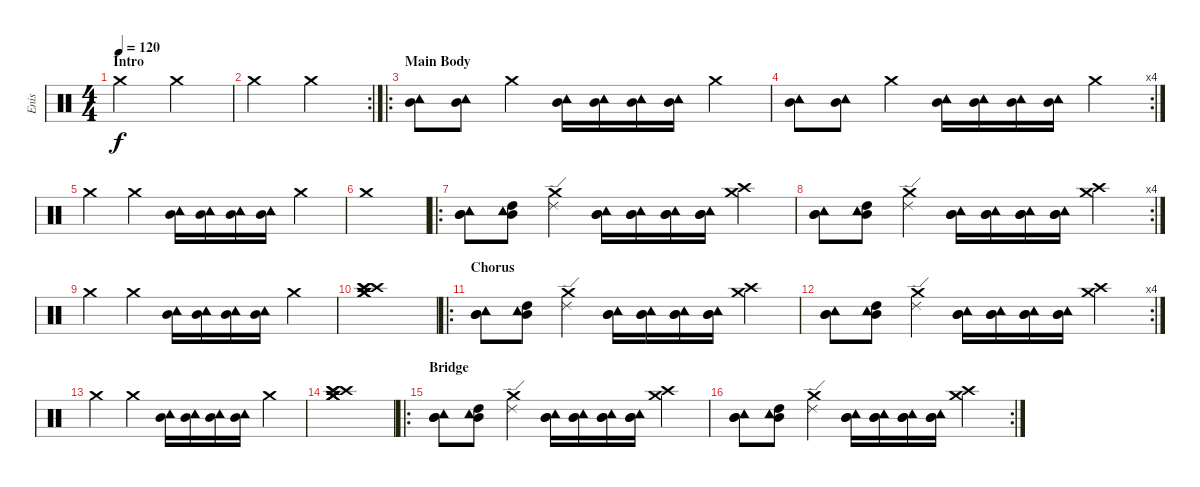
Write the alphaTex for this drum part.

\track ("Enis" "Enis") {instrument percussion}
\staff {score}
\articulation defaults
\ts (4 4)
\section ("" "İntro")
\tempo 120
\clef neutral
\ks c "Crash medium (hit)".2{dy f} "Crash medium (hit)".2
|
\rc 2 "Crash medium (hit)".2 "Crash medium (hit)".2
|
\ro
\section ("" "Main Body")
("Mid Tom (hit)" "Tambourine (hit)").8 ("Mid Tom (hit)" "Tambourine (hit)").8 "Crash medium (hit)".4 ("Mid Tom (hit)" "Tambourine (hit)").16 ("Mid Tom (hit)" "Tambourine (hit)").16 ("Mid Tom (hit)" "Tambourine (hit)").16 ("Mid Tom (hit)" "Tambourine (hit)").16 "Crash medium (hit)".4 |
\rc 4
("Mid Tom (hit)" "Tambourine (hit)").8 ("Mid Tom (hit)" "Tambourine (hit)").8 "Crash medium (hit)".4 ("Mid Tom (hit)" "Tambourine (hit)").16 ("Mid Tom (hit)" "Tambourine (hit)").16 ("Mid Tom (hit)" "Tambourine (hit)").16 ("Mid Tom (hit)" "Tambourine (hit)").16 "Crash medium (hit)".4 |
"Crash medium (hit)".4 "Crash medium (hit)".4 ("Mid Tom (hit)" "Tambourine (hit)").16 ("Mid Tom (hit)" "Tambourine (hit)").16 ("Mid Tom (hit)" "Tambourine (hit)").16 ("Mid Tom (hit)" "Tambourine (hit)").16 "Crash medium (hit)".4 |
"Crash medium (hit)".1 |
\ro
("Mid Tom (hit)" "Mid Tom (hit)" "Tambourine (hit)").8 ("High Tom (hit)" "Mid Tom (hit)" "Tambourine (hit)").8 ("Ride (edge) 2" "Crash medium (hit)").4 ("Mid Tom (hit)" "Mid Tom (hit)" "Tambourine (hit)").16 ("Mid Tom (hit)" "Mid Tom (hit)" "Tambourine (hit)").16 ("Mid Tom (hit)" "Mid Tom (hit)" "Tambourine (hit)").16 ("Mid Tom (hit)" "Mid Tom (hit)" "Tambourine (hit)").16 ("Crash high (hit)" "Crash medium (hit)").4 |
\rc 4
("Mid Tom (hit)" "Mid Tom (hit)" "Tambourine (hit)").8 ("High Tom (hit)" "Mid Tom (hit)" "Tambourine (hit)").8 ("Ride (edge) 2" "Crash medium (hit)").4 ("Mid Tom (hit)" "Mid Tom (hit)" "Tambourine (hit)").16 ("Mid Tom (hit)" "Mid Tom (hit)" "Tambourine (hit)").16 ("Mid Tom (hit)" "Mid Tom (hit)" "Tambourine (hit)").16 ("Mid Tom (hit)" "Mid Tom (hit)" "Tambourine (hit)").16 ("Crash high (hit)" "Crash medium (hit)").4 |
"Crash medium (hit)".4 "Crash medium (hit)".4 ("Mid Tom (hit)" "Tambourine (hit)").16 ("Mid Tom (hit)" "Tambourine (hit)").16 ("Mid Tom (hit)" "Tambourine (hit)").16 ("Mid Tom (hit)" "Tambourine (hit)").16 "Crash medium (hit)".4 |
("Crash medium (hit)" "Crash medium (hit)" "Crash medium (hit)" "Crash high (hit)" "Crash high (hit)" "Crash high (hit)").1 |
\ro
\section ("" "Chorus")
("Mid Tom (hit)" "Mid Tom (hit)" "Tambourine (hit)").8 ("High Tom (hit)" "Mid Tom (hit)" "Tambourine (hit)").8 ("Ride (edge) 2" "Crash medium (hit)").4 ("Mid Tom (hit)" "Mid Tom (hit)" "Tambourine (hit)").16 ("Mid Tom (hit)" "Mid Tom (hit)" "Tambourine (hit)").16 ("Mid Tom (hit)" "Mid Tom (hit)" "Tambourine (hit)").16 ("Mid Tom (hit)" "Mid Tom (hit)" "Tambourine (hit)").16 ("Crash high (hit)" "Crash medium (hit)").4 |
\rc 4
("Mid Tom (hit)" "Mid Tom (hit)" "Tambourine (hit)").8 ("High Tom (hit)" "Mid Tom (hit)" "Tambourine (hit)").8 ("Ride (edge) 2" "Crash medium (hit)").4 ("Mid Tom (hit)" "Mid Tom (hit)" "Tambourine (hit)").16 ("Mid Tom (hit)" "Mid Tom (hit)" "Tambourine (hit)").16 ("Mid Tom (hit)" "Mid Tom (hit)" "Tambourine (hit)").16 ("Mid Tom (hit)" "Mid Tom (hit)" "Tambourine (hit)").16 ("Crash high (hit)" "Crash medium (hit)").4 |
"Crash medium (hit)".4 "Crash medium (hit)".4 ("Mid Tom (hit)" "Tambourine (hit)").16 ("Mid Tom (hit)" "Tambourine (hit)").16 ("Mid Tom (hit)" "Tambourine (hit)").16 ("Mid Tom (hit)" "Tambourine (hit)").16 "Crash medium (hit)".4 |
("Crash medium (hit)" "Crash medium (hit)" "Crash medium (hit)" "Crash high (hit)" "Crash high (hit)" "Crash high (hit)").1 |
\ro
\section ("" "Bridge")
("Mid Tom (hit)" "Mid Tom (hit)" "Tambourine (hit)").8 ("High Tom (hit)" "Mid Tom (hit)" "Tambourine (hit)").8 ("Ride (edge) 2" "Crash medium (hit)").4 ("Mid Tom (hit)" "Mid Tom (hit)" "Tambourine (hit)").16 ("Mid Tom (hit)" "Mid Tom (hit)" "Tambourine (hit)").16 ("Mid Tom (hit)" "Mid Tom (hit)" "Tambourine (hit)").16 ("Mid Tom (hit)" "Mid Tom (hit)" "Tambourine (hit)").16 ("Crash high (hit)" "Crash medium (hit)").4 |
\rc 2
("Mid Tom (hit)" "Mid Tom (hit)" "Tambourine (hit)").8 ("High Tom (hit)" "Mid Tom (hit)" "Tambourine (hit)").8 ("Ride (edge) 2" "Crash medium (hit)").4 ("Mid Tom (hit)" "Mid Tom (hit)" "Tambourine (hit)").16 ("Mid Tom (hit)" "Mid Tom (hit)" "Tambourine (hit)").16 ("Mid Tom (hit)" "Mid Tom (hit)" "Tambourine (hit)").16 ("Mid Tom (hit)" "Mid Tom (hit)" "Tambourine (hit)").16 ("Crash high (hit)" "Crash medium (hit)").4
